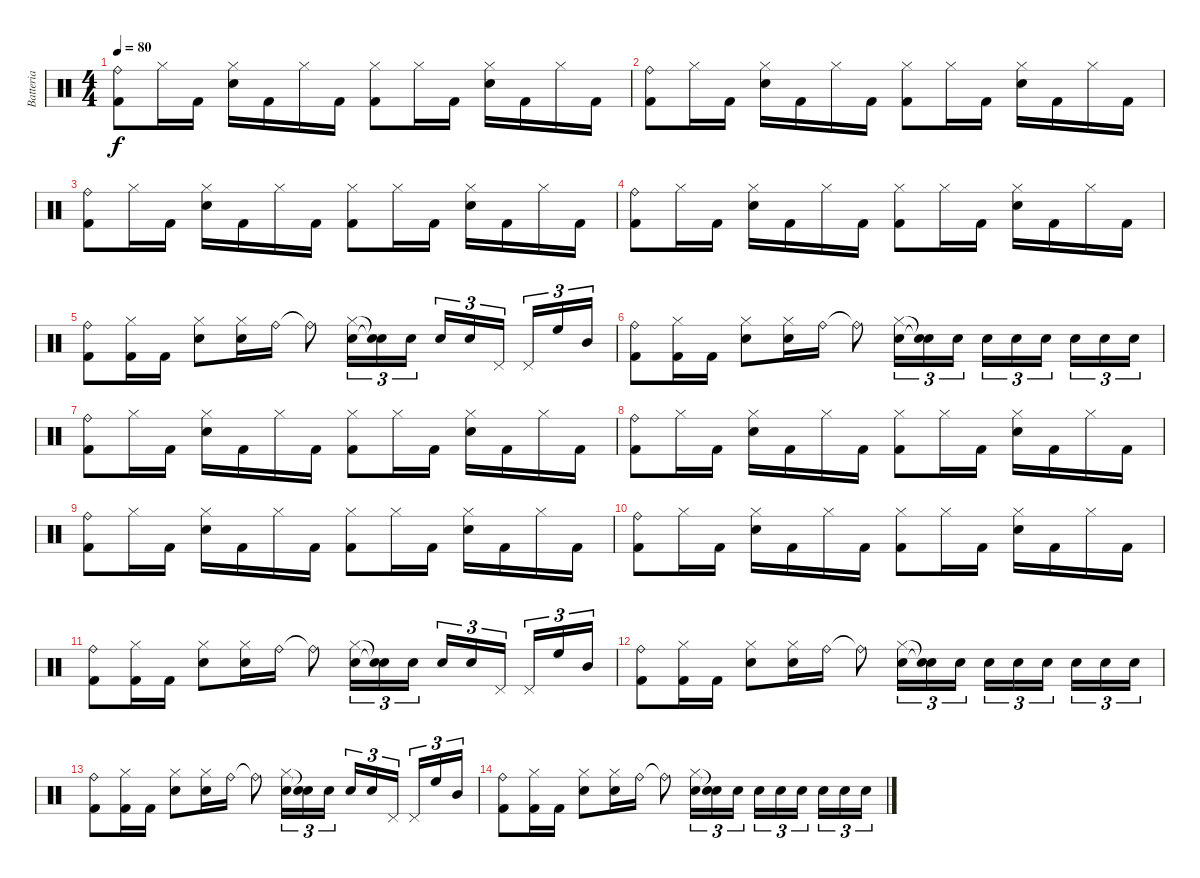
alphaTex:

\track ("Batteria" "Batteria") {instrument percussion}
\staff {score}
\articulation defaults
\ts (4 4)
\tempo 80
\clef neutral
\ks c
("Ride (bell)" "Kick (hit) 2").8{dy f} "Hi-Hat (closed)".16 "Kick (hit) 2".16 ("Hi-Hat (closed)" "Snare (hit) 2").16 "Kick (hit) 2".16 "Hi-Hat (closed)".16 "Kick (hit) 2".16 ("Hi-Hat (closed)" "Kick (hit) 2").8 "Hi-Hat (closed)".16 "Kick (hit) 2".16 ("Hi-Hat (closed)" "Snare (hit) 2").16 "Kick (hit) 2".16 "Hi-Hat (closed)".16 "Kick (hit) 2".16 |
("Ride (bell)" "Kick (hit) 2").8 "Hi-Hat (closed)".16 "Kick (hit) 2".16 ("Hi-Hat (closed)" "Snare (hit) 2").16 "Kick (hit) 2".16 "Hi-Hat (closed)".16 "Kick (hit) 2".16 ("Hi-Hat (closed)" "Kick (hit) 2").8 "Hi-Hat (closed)".16 "Kick (hit) 2".16 ("Hi-Hat (closed)" "Snare (hit) 2").16 "Kick (hit) 2".16 "Hi-Hat (closed)".16 "Kick (hit) 2".16 |
("Ride (bell)" "Kick (hit) 2").8 "Hi-Hat (closed)".16 "Kick (hit) 2".16 ("Hi-Hat (closed)" "Snare (hit) 2").16 "Kick (hit) 2".16 "Hi-Hat (closed)".16 "Kick (hit) 2".16 ("Hi-Hat (closed)" "Kick (hit) 2").8 "Hi-Hat (closed)".16 "Kick (hit) 2".16 ("Hi-Hat (closed)" "Snare (hit) 2").16 "Kick (hit) 2".16 "Hi-Hat (closed)".16 "Kick (hit) 2".16 |
("Ride (bell)" "Kick (hit) 2").8 "Hi-Hat (closed)".16 "Kick (hit) 2".16 ("Hi-Hat (closed)" "Snare (hit) 2").16 "Kick (hit) 2".16 "Hi-Hat (closed)".16 "Kick (hit) 2".16 ("Hi-Hat (closed)" "Kick (hit) 2").8 "Hi-Hat (closed)".16 "Kick (hit) 2".16 ("Hi-Hat (closed)" "Snare (hit) 2").16 "Kick (hit) 2".16 "Hi-Hat (closed)".16 "Kick (hit) 2".16 |
("Ride (bell)" "Kick (hit) 2").8 ("Hi-Hat (closed)" "Kick (hit) 2").16 "Kick (hit) 2".16 ("Hi-Hat (closed)" "Snare (hit) 2").8 ("Hi-Hat (closed)" "Snare (hit) 2").16 "Ride (bell)".16 "Ride (bell)"{t}.8 ("Hi-Hat (closed)" "Snare (hit) 2").16{tu (3 2)} ("Snare (hit)"{t} "Snare (hit)"{t}).16{tu (3 2)} "Snare (hit) 2".16{tu (3 2)} "Snare (hit) 2".16{tu (3 2)} "Snare (hit) 2".16{tu (3 2)} "Pedal Hi-Hat (hit)".16{tu (3 2)} "Pedal Hi-Hat (hit)".16{tu (3 2)} "High Floor Tom (hit)".16{tu (3 2)} "Mid Tom (hit)".16{tu (3 2)} |
("Ride (bell)" "Kick (hit) 2").8 ("Hi-Hat (closed)" "Kick (hit) 2").16 "Kick (hit) 2".16 ("Hi-Hat (closed)" "Snare (hit) 2").8 ("Hi-Hat (closed)" "Snare (hit) 2").16 "Ride (bell)".16 "Ride (bell)"{t}.8 ("Hi-Hat (closed)" "Snare (hit) 2").16{tu (3 2)} ("Snare (hit)"{t} "Snare (hit)"{t}).16{tu (3 2)} "Snare (hit) 2".16{tu (3 2)} "Snare (hit) 2".16{tu (3 2)} "Snare (hit) 2".16{tu (3 2)} "Snare (hit) 2".16{tu (3 2)} "Snare (hit) 2".16{tu (3 2)} "Snare (hit) 2".16{tu (3 2)} "Snare (hit) 2".16{tu (3 2)} |
("Ride (bell)" "Kick (hit) 2").8 "Hi-Hat (closed)".16 "Kick (hit) 2".16 ("Hi-Hat (closed)" "Snare (hit) 2").16 "Kick (hit) 2".16 "Hi-Hat (closed)".16 "Kick (hit) 2".16 ("Hi-Hat (closed)" "Kick (hit) 2").8 "Hi-Hat (closed)".16 "Kick (hit) 2".16 ("Hi-Hat (closed)" "Snare (hit) 2").16 "Kick (hit) 2".16 "Hi-Hat (closed)".16 "Kick (hit) 2".16 |
("Ride (bell)" "Kick (hit) 2").8 "Hi-Hat (closed)".16 "Kick (hit) 2".16 ("Hi-Hat (closed)" "Snare (hit) 2").16 "Kick (hit) 2".16 "Hi-Hat (closed)".16 "Kick (hit) 2".16 ("Hi-Hat (closed)" "Kick (hit) 2").8 "Hi-Hat (closed)".16 "Kick (hit) 2".16 ("Hi-Hat (closed)" "Snare (hit) 2").16 "Kick (hit) 2".16 "Hi-Hat (closed)".16 "Kick (hit) 2".16 |
("Ride (bell)" "Kick (hit) 2").8 "Hi-Hat (closed)".16 "Kick (hit) 2".16 ("Hi-Hat (closed)" "Snare (hit) 2").16 "Kick (hit) 2".16 "Hi-Hat (closed)".16 "Kick (hit) 2".16 ("Hi-Hat (closed)" "Kick (hit) 2").8 "Hi-Hat (closed)".16 "Kick (hit) 2".16 ("Hi-Hat (closed)" "Snare (hit) 2").16 "Kick (hit) 2".16 "Hi-Hat (closed)".16 "Kick (hit) 2".16 |
("Ride (bell)" "Kick (hit) 2").8 "Hi-Hat (closed)".16 "Kick (hit) 2".16 ("Hi-Hat (closed)" "Snare (hit) 2").16 "Kick (hit) 2".16 "Hi-Hat (closed)".16 "Kick (hit) 2".16 ("Hi-Hat (closed)" "Kick (hit) 2").8 "Hi-Hat (closed)".16 "Kick (hit) 2".16 ("Hi-Hat (closed)" "Snare (hit) 2").16 "Kick (hit) 2".16 "Hi-Hat (closed)".16 "Kick (hit) 2".16 |
("Ride (bell)" "Kick (hit) 2").8 ("Hi-Hat (closed)" "Kick (hit) 2").16 "Kick (hit) 2".16 ("Hi-Hat (closed)" "Snare (hit) 2").8 ("Hi-Hat (closed)" "Snare (hit) 2").16 "Ride (bell)".16 "Ride (bell)"{t}.8 ("Hi-Hat (closed)" "Snare (hit) 2").16{tu (3 2)} ("Snare (hit)"{t} "Snare (hit)"{t}).16{tu (3 2)} "Snare (hit) 2".16{tu (3 2)} "Snare (hit) 2".16{tu (3 2)} "Snare (hit) 2".16{tu (3 2)} "Pedal Hi-Hat (hit)".16{tu (3 2)} "Pedal Hi-Hat (hit)".16{tu (3 2)} "High Floor Tom (hit)".16{tu (3 2)} "Mid Tom (hit)".16{tu (3 2)} |
("Ride (bell)" "Kick (hit) 2").8 ("Hi-Hat (closed)" "Kick (hit) 2").16 "Kick (hit) 2".16 ("Hi-Hat (closed)" "Snare (hit) 2").8 ("Hi-Hat (closed)" "Snare (hit) 2").16 "Ride (bell)".16 "Ride (bell)"{t}.8 ("Hi-Hat (closed)" "Snare (hit) 2").16{tu (3 2)} ("Snare (hit)"{t} "Snare (hit)"{t}).16{tu (3 2)} "Snare (hit) 2".16{tu (3 2)} "Snare (hit) 2".16{tu (3 2)} "Snare (hit) 2".16{tu (3 2)} "Snare (hit) 2".16{tu (3 2)} "Snare (hit) 2".16{tu (3 2)} "Snare (hit) 2".16{tu (3 2)} "Snare (hit) 2".16{tu (3 2)} |
("Ride (bell)" "Kick (hit) 2").8 ("Hi-Hat (closed)" "Kick (hit) 2").16 "Kick (hit) 2".16 ("Hi-Hat (closed)" "Snare (hit) 2").8 ("Hi-Hat (closed)" "Snare (hit) 2").16 "Ride (bell)".16 "Ride (bell)"{t}.8 ("Hi-Hat (closed)" "Snare (hit) 2").16{tu (3 2)} ("Snare (hit)"{t} "Snare (hit)"{t}).16{tu (3 2)} "Snare (hit) 2".16{tu (3 2)} "Snare (hit) 2".16{tu (3 2)} "Snare (hit) 2".16{tu (3 2)} "Pedal Hi-Hat (hit)".16{tu (3 2)} "Pedal Hi-Hat (hit)".16{tu (3 2)} "High Floor Tom (hit)".16{tu (3 2)} "Mid Tom (hit)".16{tu (3 2)} |
("Ride (bell)" "Kick (hit) 2").8 ("Hi-Hat (closed)" "Kick (hit) 2").16 "Kick (hit) 2".16 ("Hi-Hat (closed)" "Snare (hit) 2").8 ("Hi-Hat (closed)" "Snare (hit) 2").16 "Ride (bell)".16 "Ride (bell)"{t}.8 ("Hi-Hat (closed)" "Snare (hit) 2").16{tu (3 2)} ("Snare (hit)"{t} "Snare (hit)"{t}).16{tu (3 2)} "Snare (hit) 2".16{tu (3 2)} "Snare (hit) 2".16{tu (3 2)} "Snare (hit) 2".16{tu (3 2)} "Snare (hit) 2".16{tu (3 2)} "Snare (hit) 2".16{tu (3 2)} "Snare (hit) 2".16{tu (3 2)} "Snare (hit) 2".16{tu (3 2)}
